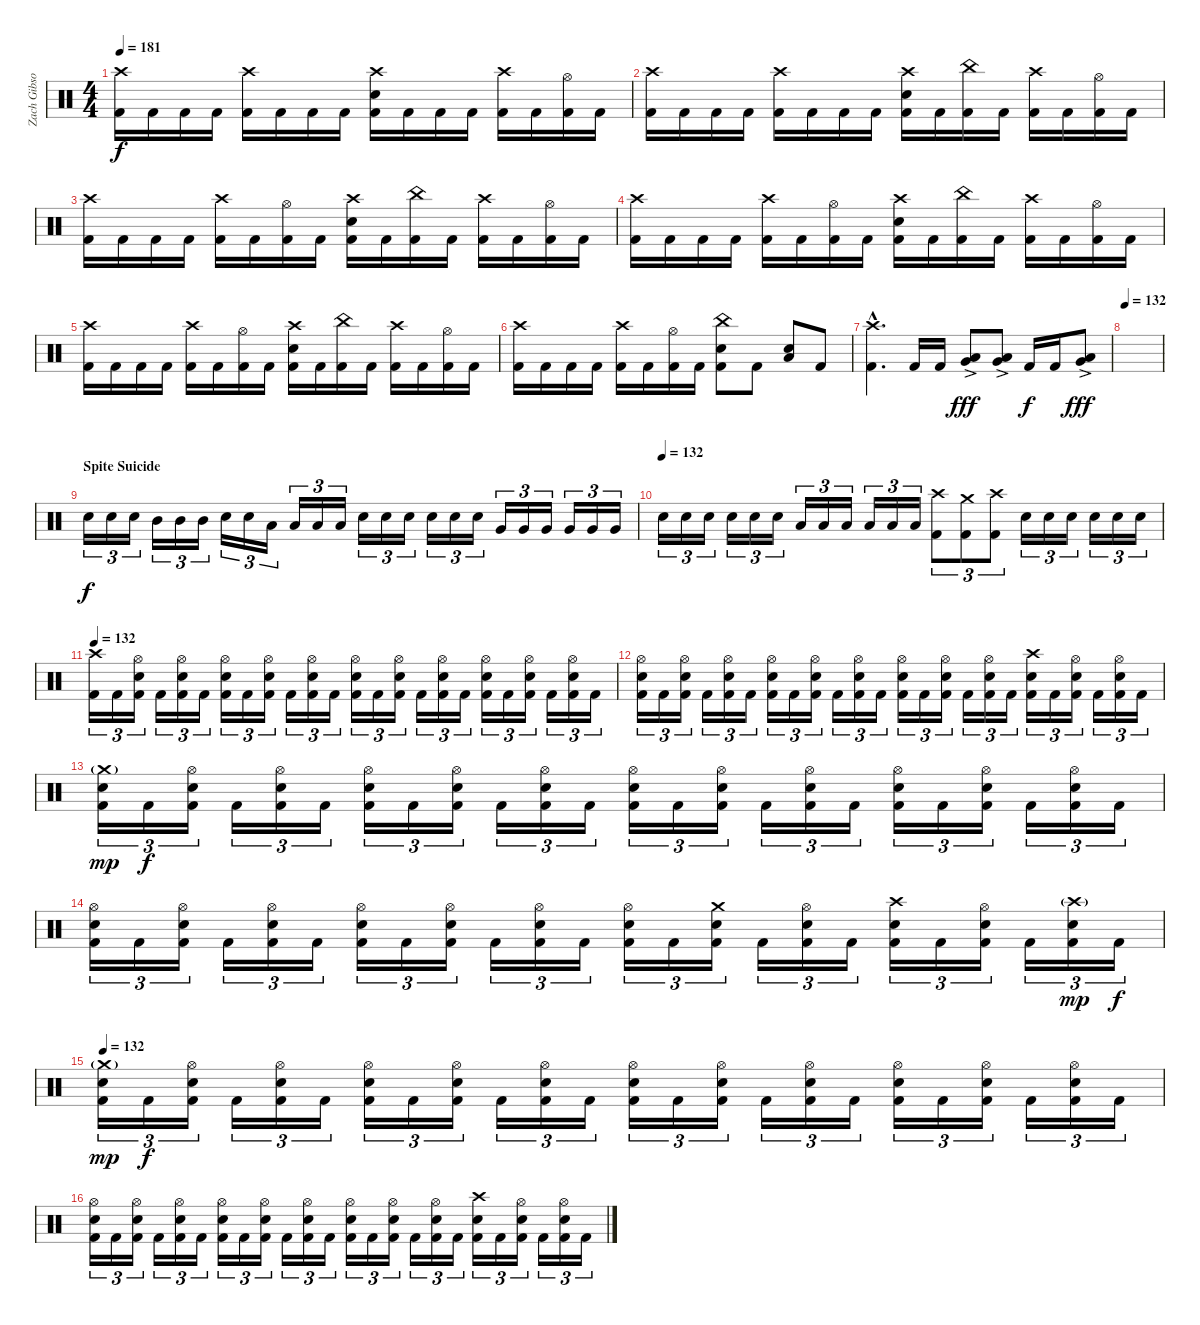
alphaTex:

\track ("Zach Gibson (Drums)" "Zach Gibso") {instrument percussion}
\staff {score}
\articulation defaults
\ts (4 4)
\tempo 181
\clef neutral
\ks c
("Crash high (hit)" "Kick (hit) 2").16{dy f} "Kick (hit) 2".16 "Kick (hit) 2".16 "Kick (hit) 2".16 ("Crash high (hit)" "Kick (hit) 2").16 "Kick (hit) 2".16 "Kick (hit) 2".16 "Kick (hit) 2".16 ("Crash high (hit)" "Snare (hit) 2" "Kick (hit) 2").16 "Kick (hit) 2".16 "Kick (hit) 2".16 "Kick (hit) 2".16 ("Crash high (hit)" "Kick (hit) 2").16 "Kick (hit) 2".16 ("Hi-Hat (open)" "Kick (hit) 2").16 "Kick (hit) 2".16 |
("Crash high (hit)" "Kick (hit) 2").16 "Kick (hit) 2".16 "Kick (hit) 2".16 "Kick (hit) 2".16 ("Crash high (hit)" "Kick (hit) 2").16 "Kick (hit) 2".16 "Kick (hit) 2".16 "Kick (hit) 2".16 ("Crash high (hit)" "Snare (hit) 2" "Kick (hit) 2").16 "Kick (hit) 2".16 ("China (hit)" "Kick (hit) 2").16 "Kick (hit) 2".16 ("Crash high (hit)" "Kick (hit) 2").16 "Kick (hit) 2".16 ("Hi-Hat (open)" "Kick (hit) 2").16 "Kick (hit) 2".16 |
("Crash high (hit)" "Kick (hit) 2").16 "Kick (hit) 2".16 "Kick (hit) 2".16 "Kick (hit) 2".16 ("Crash high (hit)" "Kick (hit) 2").16 "Kick (hit) 2".16 ("Hi-Hat (open)" "Kick (hit) 2").16 "Kick (hit) 2".16 ("Crash high (hit)" "Snare (hit) 2" "Kick (hit) 2").16 "Kick (hit) 2".16 ("China (hit)" "Kick (hit) 2").16 "Kick (hit) 2".16 ("Crash high (hit)" "Kick (hit) 2").16 "Kick (hit) 2".16 ("Hi-Hat (open)" "Kick (hit) 2").16 "Kick (hit) 2".16 |
("Crash high (hit)" "Kick (hit) 2").16 "Kick (hit) 2".16 "Kick (hit) 2".16 "Kick (hit) 2".16 ("Crash high (hit)" "Kick (hit) 2").16 "Kick (hit) 2".16 ("Hi-Hat (open)" "Kick (hit) 2").16 "Kick (hit) 2".16 ("Crash high (hit)" "Snare (hit) 2" "Kick (hit) 2").16 "Kick (hit) 2".16 ("China (hit)" "Kick (hit) 2").16 "Kick (hit) 2".16 ("Crash high (hit)" "Kick (hit) 2").16 "Kick (hit) 2".16 ("Hi-Hat (open)" "Kick (hit) 2").16 "Kick (hit) 2".16 |
("Crash high (hit)" "Kick (hit) 2").16 "Kick (hit) 2".16 "Kick (hit) 2".16 "Kick (hit) 2".16 ("Crash high (hit)" "Kick (hit) 2").16 "Kick (hit) 2".16 ("Hi-Hat (open)" "Kick (hit) 2").16 "Kick (hit) 2".16 ("Crash high (hit)" "Snare (hit) 2" "Kick (hit) 2").16 "Kick (hit) 2".16 ("China (hit)" "Kick (hit) 2").16 "Kick (hit) 2".16 ("Crash high (hit)" "Kick (hit) 2").16 "Kick (hit) 2".16 ("Hi-Hat (open)" "Kick (hit) 2").16 "Kick (hit) 2".16 |
("Crash high (hit)" "Kick (hit) 2").16 "Kick (hit) 2".16 "Kick (hit) 2".16 "Kick (hit) 2".16 ("Crash high (hit)" "Kick (hit) 2").16 "Kick (hit) 2".16 ("Hi-Hat (open)" "Kick (hit) 2").16 "Kick (hit) 2".16 ("China (hit)" "Snare (hit) 2" "Kick (hit) 2").8 "Kick (hit) 2".8 ("Low Floor Tom (hit)" "Snare (hit) 2").8 "Kick (hit) 2".8 |
("Crash high (hit)"{hac} "Kick (hit) 2"{hac}).4{d} "Kick (hit) 2".16 "Kick (hit) 2".16 ("Low Tom (hit)"{ac} "Very Low Tom (hit)"{ac}).8{dy fff} ("Low Tom (hit)"{ac} "Very Low Tom (hit)"{ac}).8 "Kick (hit) 2".16{dy f} "Kick (hit) 2".16 ("Very Low Tom (hit)"{ac} "Low Floor Tom (hit)"{ac}).8{dy fff} |
\tempo 132
|
\section ("" "Spite Suicide")
"Snare (hit) 2".16{tu (3 2) dy f} "Snare (hit) 2".16{tu (3 2)} "Snare (hit) 2".16{tu (3 2)} "Mid Tom (hit)".16{tu (3 2)} "Mid Tom (hit)".16{tu (3 2)} "Mid Tom (hit)".16{tu (3 2)} "Snare (hit) 2".16{tu (3 2)} "Snare (hit) 2".16{tu (3 2)} "Low Tom (hit)".16{tu (3 2)} "Low Tom (hit)".16{tu (3 2)} "Low Tom (hit)".16{tu (3 2)} "Low Tom (hit)".16{tu (3 2)} "Snare (hit) 2".16{tu (3 2)} "Snare (hit) 2".16{tu (3 2)} "Snare (hit) 2".16{tu (3 2)} "Snare (hit) 2".16{tu (3 2)} "Snare (hit) 2".16{tu (3 2)} "Snare (hit) 2".16{tu (3 2)} "Very Low Tom (hit)".16{tu (3 2)} "Very Low Tom (hit)".16{tu (3 2)} "Very Low Tom (hit)".16{tu (3 2)} "Very Low Tom (hit)".16{tu (3 2)} "Very Low Tom (hit)".16{tu (3 2)} "Very Low Tom (hit)".16{tu (3 2)} |
\tempo (132)
"Snare (hit) 2".16{tu (3 2)} "Snare (hit) 2".16{tu (3 2)} "Snare (hit) 2".16{tu (3 2)} "Snare (hit) 2".16{tu (3 2)} "Snare (hit) 2".16{tu (3 2)} "Snare (hit) 2".16{tu (3 2)} "Low Floor Tom (hit)".16{tu (3 2)} "Low Floor Tom (hit)".16{tu (3 2)} "Low Floor Tom (hit)".16{tu (3 2)} "Low Floor Tom (hit)".16{tu (3 2)} "Low Floor Tom (hit)".16{tu (3 2)} "Low Floor Tom (hit)".16{tu (3 2)} ("Crash high (hit)" "Kick (hit) 2").8{tu (3 2)} ("Crash medium (hit)" "Kick (hit) 2").8{tu (3 2)} ("Crash high (hit)" "Kick (hit) 2").8{tu (3 2)} "Snare (hit) 2".16{tu (3 2)} "Snare (hit) 2".16{tu (3 2)} "Snare (hit) 2".16{tu (3 2)} "Snare (hit) 2".16{tu (3 2)} "Snare (hit) 2".16{tu (3 2)} "Snare (hit) 2".16{tu (3 2)} |
\tempo 132
("Crash high (hit)" "Kick (hit) 2").16{tu (3 2)} "Kick (hit) 2".16{tu (3 2)} ("Hi-Hat (open)" "Snare (hit) 2" "Kick (hit) 2").16{tu (3 2)} "Kick (hit) 2".16{tu (3 2)} ("Hi-Hat (open)" "Snare (hit) 2" "Kick (hit) 2").16{tu (3 2)} "Kick (hit) 2".16{tu (3 2)} ("Hi-Hat (open)" "Snare (hit) 2" "Kick (hit) 2").16{tu (3 2)} "Kick (hit) 2".16{tu (3 2)} ("Hi-Hat (open)" "Snare (hit) 2" "Kick (hit) 2").16{tu (3 2)} "Kick (hit) 2".16{tu (3 2)} ("Hi-Hat (open)" "Snare (hit) 2" "Kick (hit) 2").16{tu (3 2)} "Kick (hit) 2".16{tu (3 2)} ("Hi-Hat (open)" "Snare (hit) 2" "Kick (hit) 2").16{tu (3 2)} "Kick (hit) 2".16{tu (3 2)} ("Hi-Hat (open)" "Snare (hit) 2" "Kick (hit) 2").16{tu (3 2)} "Kick (hit) 2".16{tu (3 2)} ("Hi-Hat (open)" "Snare (hit) 2" "Kick (hit) 2").16{tu (3 2)} "Kick (hit) 2".16{tu (3 2)} ("Hi-Hat (open)" "Snare (hit) 2" "Kick (hit) 2").16{tu (3 2)} "Kick (hit) 2".16{tu (3 2)} ("Hi-Hat (open)" "Snare (hit) 2" "Kick (hit) 2").16{tu (3 2)} "Kick (hit) 2".16{tu (3 2)} ("Hi-Hat (open)" "Snare (hit) 2" "Kick (hit) 2").16{tu (3 2)} "Kick (hit) 2".16{tu (3 2)} |
("Hi-Hat (open)" "Snare (hit) 2" "Kick (hit) 2").16{tu (3 2)} "Kick (hit) 2".16{tu (3 2)} ("Hi-Hat (open)" "Snare (hit) 2" "Kick (hit) 2").16{tu (3 2)} "Kick (hit) 2".16{tu (3 2)} ("Hi-Hat (open)" "Snare (hit) 2" "Kick (hit) 2").16{tu (3 2)} "Kick (hit) 2".16{tu (3 2)} ("Hi-Hat (open)" "Snare (hit) 2" "Kick (hit) 2").16{tu (3 2)} "Kick (hit) 2".16{tu (3 2)} ("Hi-Hat (open)" "Snare (hit) 2" "Kick (hit) 2").16{tu (3 2)} "Kick (hit) 2".16{tu (3 2)} ("Hi-Hat (open)" "Snare (hit) 2" "Kick (hit) 2").16{tu (3 2)} "Kick (hit) 2".16{tu (3 2)} ("Hi-Hat (open)" "Snare (hit) 2" "Kick (hit) 2").16{tu (3 2)} "Kick (hit) 2".16{tu (3 2)} ("Hi-Hat (open)" "Snare (hit) 2" "Kick (hit) 2").16{tu (3 2)} "Kick (hit) 2".16{tu (3 2)} ("Hi-Hat (open)" "Snare (hit) 2" "Kick (hit) 2").16{tu (3 2)} "Kick (hit) 2".16{tu (3 2)} ("Crash high (hit)" "Snare (hit) 2" "Kick (hit) 2").16{tu (3 2)} "Kick (hit) 2".16{tu (3 2)} ("Hi-Hat (open)" "Snare (hit) 2" "Kick (hit) 2").16{tu (3 2)} "Kick (hit) 2".16{tu (3 2)} ("Hi-Hat (open)" "Snare (hit) 2" "Kick (hit) 2").16{tu (3 2)} "Kick (hit) 2".16{tu (3 2)} |
("Crash medium (hit)"{g} "Snare (hit) 2" "Kick (hit) 2").16{tu (3 2) dy mp} "Kick (hit) 2".16{tu (3 2) dy f} ("Hi-Hat (open)" "Snare (hit) 2" "Kick (hit) 2").16{tu (3 2)} "Kick (hit) 2".16{tu (3 2)} ("Hi-Hat (open)" "Snare (hit) 2" "Kick (hit) 2").16{tu (3 2)} "Kick (hit) 2".16{tu (3 2)} ("Hi-Hat (open)" "Snare (hit) 2" "Kick (hit) 2").16{tu (3 2)} "Kick (hit) 2".16{tu (3 2)} ("Hi-Hat (open)" "Snare (hit) 2" "Kick (hit) 2").16{tu (3 2)} "Kick (hit) 2".16{tu (3 2)} ("Hi-Hat (open)" "Snare (hit) 2" "Kick (hit) 2").16{tu (3 2)} "Kick (hit) 2".16{tu (3 2)} ("Hi-Hat (open)" "Snare (hit) 2" "Kick (hit) 2").16{tu (3 2)} "Kick (hit) 2".16{tu (3 2)} ("Hi-Hat (open)" "Snare (hit) 2" "Kick (hit) 2").16{tu (3 2)} "Kick (hit) 2".16{tu (3 2)} ("Hi-Hat (open)" "Snare (hit) 2" "Kick (hit) 2").16{tu (3 2)} "Kick (hit) 2".16{tu (3 2)} ("Hi-Hat (open)" "Snare (hit) 2" "Kick (hit) 2").16{tu (3 2)} "Kick (hit) 2".16{tu (3 2)} ("Hi-Hat (open)" "Snare (hit) 2" "Kick (hit) 2").16{tu (3 2)} "Kick (hit) 2".16{tu (3 2)} ("Hi-Hat (open)" "Snare (hit) 2" "Kick (hit) 2").16{tu (3 2)} "Kick (hit) 2".16{tu (3 2)} |
("Hi-Hat (open)" "Snare (hit) 2" "Kick (hit) 2").16{tu (3 2)} "Kick (hit) 2".16{tu (3 2)} ("Hi-Hat (open)" "Snare (hit) 2" "Kick (hit) 2").16{tu (3 2)} "Kick (hit) 2".16{tu (3 2)} ("Hi-Hat (open)" "Snare (hit) 2" "Kick (hit) 2").16{tu (3 2)} "Kick (hit) 2".16{tu (3 2)} ("Hi-Hat (open)" "Snare (hit) 2" "Kick (hit) 2").16{tu (3 2)} "Kick (hit) 2".16{tu (3 2)} ("Hi-Hat (open)" "Snare (hit) 2" "Kick (hit) 2").16{tu (3 2)} "Kick (hit) 2".16{tu (3 2)} ("Hi-Hat (open)" "Snare (hit) 2" "Kick (hit) 2").16{tu (3 2)} "Kick (hit) 2".16{tu (3 2)} ("Hi-Hat (open)" "Snare (hit) 2" "Kick (hit) 2").16{tu (3 2)} "Kick (hit) 2".16{tu (3 2)} ("Crash medium (hit)" "Snare (hit) 2" "Kick (hit) 2").16{tu (3 2)} "Kick (hit) 2".16{tu (3 2)} ("Hi-Hat (open)" "Snare (hit) 2" "Kick (hit) 2").16{tu (3 2)} "Kick (hit) 2".16{tu (3 2)} ("Crash high (hit)" "Snare (hit) 2" "Kick (hit) 2").16{tu (3 2)} "Kick (hit) 2".16{tu (3 2)} ("Hi-Hat (open)" "Snare (hit) 2" "Kick (hit) 2").16{tu (3 2)} "Kick (hit) 2".16{tu (3 2)} ("Crash high (hit)"{g} "Snare (hit) 2" "Kick (hit) 2").16{tu (3 2) dy mp} "Kick (hit) 2".16{tu (3 2) dy f} |
\tempo 132
("Crash medium (hit)"{g} "Snare (hit) 2" "Kick (hit) 2").16{tu (3 2) dy mp} "Kick (hit) 2".16{tu (3 2) dy f} ("Hi-Hat (open)" "Snare (hit) 2" "Kick (hit) 2").16{tu (3 2)} "Kick (hit) 2".16{tu (3 2)} ("Hi-Hat (open)" "Snare (hit) 2" "Kick (hit) 2").16{tu (3 2)} "Kick (hit) 2".16{tu (3 2)} ("Hi-Hat (open)" "Snare (hit) 2" "Kick (hit) 2").16{tu (3 2)} "Kick (hit) 2".16{tu (3 2)} ("Hi-Hat (open)" "Snare (hit) 2" "Kick (hit) 2").16{tu (3 2)} "Kick (hit) 2".16{tu (3 2)} ("Hi-Hat (open)" "Snare (hit) 2" "Kick (hit) 2").16{tu (3 2)} "Kick (hit) 2".16{tu (3 2)} ("Hi-Hat (open)" "Snare (hit) 2" "Kick (hit) 2").16{tu (3 2)} "Kick (hit) 2".16{tu (3 2)} ("Hi-Hat (open)" "Snare (hit) 2" "Kick (hit) 2").16{tu (3 2)} "Kick (hit) 2".16{tu (3 2)} ("Hi-Hat (open)" "Snare (hit) 2" "Kick (hit) 2").16{tu (3 2)} "Kick (hit) 2".16{tu (3 2)} ("Hi-Hat (open)" "Snare (hit) 2" "Kick (hit) 2").16{tu (3 2)} "Kick (hit) 2".16{tu (3 2)} ("Hi-Hat (open)" "Snare (hit) 2" "Kick (hit) 2").16{tu (3 2)} "Kick (hit) 2".16{tu (3 2)} ("Hi-Hat (open)" "Snare (hit) 2" "Kick (hit) 2").16{tu (3 2)} "Kick (hit) 2".16{tu (3 2)} |
("Hi-Hat (open)" "Snare (hit) 2" "Kick (hit) 2").16{tu (3 2)} "Kick (hit) 2".16{tu (3 2)} ("Hi-Hat (open)" "Snare (hit) 2" "Kick (hit) 2").16{tu (3 2)} "Kick (hit) 2".16{tu (3 2)} ("Hi-Hat (open)" "Snare (hit) 2" "Kick (hit) 2").16{tu (3 2)} "Kick (hit) 2".16{tu (3 2)} ("Hi-Hat (open)" "Snare (hit) 2" "Kick (hit) 2").16{tu (3 2)} "Kick (hit) 2".16{tu (3 2)} ("Hi-Hat (open)" "Snare (hit) 2" "Kick (hit) 2").16{tu (3 2)} "Kick (hit) 2".16{tu (3 2)} ("Hi-Hat (open)" "Snare (hit) 2" "Kick (hit) 2").16{tu (3 2)} "Kick (hit) 2".16{tu (3 2)} ("Hi-Hat (open)" "Snare (hit) 2" "Kick (hit) 2").16{tu (3 2)} "Kick (hit) 2".16{tu (3 2)} ("Hi-Hat (open)" "Snare (hit) 2" "Kick (hit) 2").16{tu (3 2)} "Kick (hit) 2".16{tu (3 2)} ("Hi-Hat (open)" "Snare (hit) 2" "Kick (hit) 2").16{tu (3 2)} "Kick (hit) 2".16{tu (3 2)} ("Crash high (hit)" "Snare (hit) 2" "Kick (hit) 2").16{tu (3 2)} "Kick (hit) 2".16{tu (3 2)} ("Hi-Hat (open)" "Snare (hit) 2" "Kick (hit) 2").16{tu (3 2)} "Kick (hit) 2".16{tu (3 2)} ("Hi-Hat (open)" "Snare (hit) 2" "Kick (hit) 2").16{tu (3 2)} "Kick (hit) 2".16{tu (3 2)}
